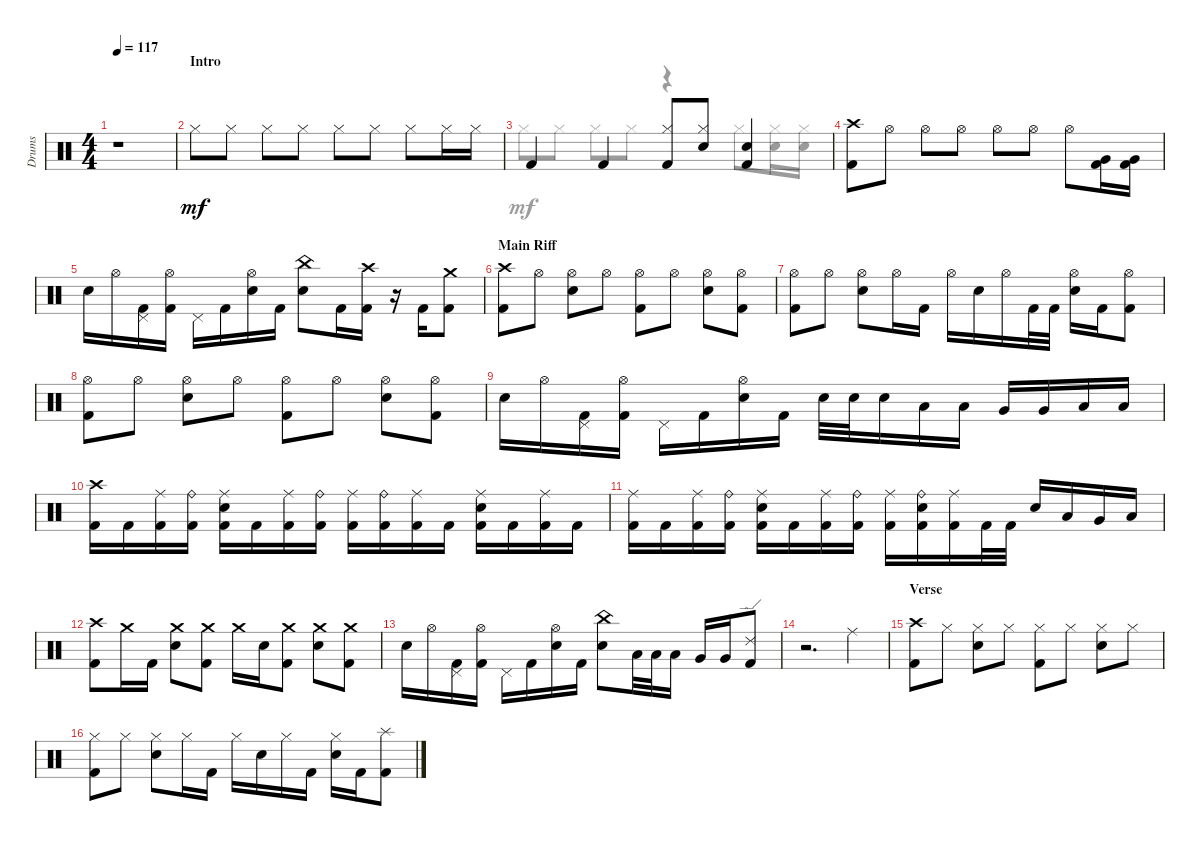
\track ("Drums" "Drums") {instrument percussion}
\staff {score}
\articulation defaults
\voice
\ts (4 4)
\tempo 117
\clef neutral
\ks aminor
r.1{dy mf} |
\section ("" "Intro")
"Hi-Hat (closed)".8 "Hi-Hat (closed)".8 "Hi-Hat (closed)".8 "Hi-Hat (closed)".8 "Hi-Hat (closed)".8 "Hi-Hat (closed)".8 "Hi-Hat (closed)".8 "Hi-Hat (closed)".16 "Hi-Hat (closed)".16 |
"Kick (hit) 2".4 "Kick (hit) 2".4 ("Hi-Hat (closed)" "Kick (hit) 2").8 ("Snare (hit) 2" "Hi-Hat (closed)").8 ("Kick (hit) 2" "Snare (hit) 2").4 |
("Kick (hit) 2" "Crash high (hit)").8 "Hi-Hat (open)".8 "Hi-Hat (open)".8 "Hi-Hat (open)".8 "Hi-Hat (open)".8 "Hi-Hat (open)".8 "Hi-Hat (open)".8 ("Kick (hit) 2" "Very Low Tom (hit)").16 ("Kick (hit) 2" "Very Low Tom (hit)").16 |
"Snare (hit) 2".16 "Hi-Hat (open)".16 ("Pedal Hi-Hat (hit)" "Kick (hit) 2").16 ("Kick (hit) 2" "Hi-Hat (open)").16 "Pedal Hi-Hat (hit)".16 "Kick (hit) 2".16 ("Snare (hit) 2" "Hi-Hat (open)").16 "Kick (hit) 2".16 ("China (hit)" "Snare (hit) 2").8 "Kick (hit) 2".16 ("Crash high (hit)" "Kick (hit) 2").16 r.16 "Kick (hit) 2".16 ("Crash medium (hit)" "Kick (hit) 2").8 |
\section ("" "Main Riff")
("Kick (hit) 2" "Crash high (hit)").8 "Hi-Hat (open)".8 ("Hi-Hat (open)" "Snare (hit) 2").8 "Hi-Hat (open)".8 ("Hi-Hat (open)" "Kick (hit) 2").8 "Hi-Hat (open)".8 ("Hi-Hat (open)" "Snare (hit) 2").8 ("Hi-Hat (open)" "Kick (hit) 2").8 |
("Hi-Hat (open)" "Kick (hit) 2").8 "Hi-Hat (open)".8 ("Snare (hit) 2" "Hi-Hat (open)").8 "Hi-Hat (open)".16 "Kick (hit) 2".16 "Hi-Hat (open)".16 "Snare (hit) 2".16 "Hi-Hat (open)".16 "Kick (hit) 2".32 "Kick (hit) 2".32 ("Hi-Hat (open)" "Snare (hit) 2").16 "Kick (hit) 2".16 ("Kick (hit) 2" "Hi-Hat (open)").8 |
("Kick (hit) 2" "Hi-Hat (open)").8 "Hi-Hat (open)".8 ("Snare (hit) 2" "Hi-Hat (open)").8 "Hi-Hat (open)".8 ("Kick (hit) 2" "Hi-Hat (open)").8 "Hi-Hat (open)".8 ("Snare (hit) 2" "Hi-Hat (open)").8 ("Hi-Hat (open)" "Kick (hit) 2").8 |
"Snare (hit) 2".16 "Hi-Hat (open)".16 ("Pedal Hi-Hat (hit)" "Kick (hit) 2").16 ("Hi-Hat (open)" "Kick (hit) 2").16 "Pedal Hi-Hat (hit)".16 "Kick (hit) 2".16 ("Hi-Hat (open)" "Snare (hit) 2").16 "Kick (hit) 2".16 "Snare (hit) 2".32 "Snare (hit) 2".32 "Snare (hit) 2".16 "Low Tom (hit)".16 "Low Tom (hit)".16 "Very Low Tom (hit)".16 "Very Low Tom (hit)".16 "Low Floor Tom (hit)".16 "Low Floor Tom (hit)".16 |
("Crash high (hit)" "Kick (hit) 2").16 "Kick (hit) 2".16 ("Ride (middle)" "Kick (hit) 2").16 ("Ride (bell)" "Kick (hit) 2").16 ("Snare (hit) 2" "Kick (hit) 2" "Ride (middle)").16 "Kick (hit) 2".16 ("Kick (hit) 2" "Ride (middle)").16 ("Ride (bell)" "Kick (hit) 2").16 ("Kick (hit) 2" "Ride (middle)").16 ("Kick (hit) 2" "Ride (bell)").16 ("Kick (hit) 2" "Ride (middle)").16 "Kick (hit) 2".16 ("Snare (hit) 2" "Ride (middle)" "Kick (hit) 2").16 "Kick (hit) 2".16 ("Ride (middle)" "Kick (hit) 2").16 "Kick (hit) 2".16 |
("Kick (hit) 2" "Ride (middle)").16 "Kick (hit) 2".16 ("Ride (middle)" "Kick (hit) 2").16 ("Ride (bell)" "Kick (hit) 2").16 ("Snare (hit) 2" "Kick (hit) 2" "Ride (middle)").16 "Kick (hit) 2".16 ("Kick (hit) 2" "Ride (middle)").16 ("Ride (bell)" "Kick (hit) 2").16 ("Ride (middle)" "Kick (hit) 2").16 ("Ride (bell)" "Kick (hit) 2" "Snare (hit) 2").16 ("Ride (middle)" "Kick (hit) 2").16 "Kick (hit) 2".32 "Kick (hit) 2".32 "Snare (hit) 2".16 "Low Tom (hit)".16 "Very Low Tom (hit)".16 "Low Floor Tom (hit)".16 |
("Crash high (hit)" "Kick (hit) 2").8 "Crash medium (hit)".16 "Kick (hit) 2".16 ("Crash medium (hit)" "Snare (hit) 2").8 ("Kick (hit) 2" "Crash medium (hit)").8 "Crash medium (hit)".16 "Snare (hit) 2".16 ("Kick (hit) 2" "Crash medium (hit)").8 ("Crash medium (hit)" "Snare (hit) 2").8 ("Kick (hit) 2" "Crash medium (hit)").8 |
"Snare (hit) 2".16 "Hi-Hat (open)".16 ("Kick (hit) 2" "Pedal Hi-Hat (hit)").16 ("Kick (hit) 2" "Hi-Hat (open)").16 "Pedal Hi-Hat (hit)".16 "Kick (hit) 2".16 ("Snare (hit) 2" "Hi-Hat (open)").16 "Kick (hit) 2".16 ("China (hit)" "Snare (hit) 2").8 "Low Tom (hit)".32 "Low Tom (hit)".32 "Low Tom (hit)".16 "Very Low Tom (hit)".16 "Very Low Tom (hit)".16 ("Ride (edge) 2" "Kick (hit) 2").8 |
r.2{d} "Ride (middle)".4 |
\section ("" "Verse")
("Crash high (hit)" "Kick (hit) 2").8 "Hi-Hat (closed)".8 ("Snare (hit) 2" "Hi-Hat (closed)").8 "Hi-Hat (closed)".8 ("Kick (hit) 2" "Hi-Hat (closed)").8 "Hi-Hat (closed)".8 ("Snare (hit) 2" "Hi-Hat (closed)").8 "Hi-Hat (closed)".8 |
("Kick (hit) 2" "Hi-Hat (closed)").8 "Hi-Hat (closed)".8 ("Snare (hit) 2" "Hi-Hat (closed)").8 "Hi-Hat (closed)".16 "Kick (hit) 2".16 "Hi-Hat (closed)".16 "Snare (hit) 2".16 "Hi-Hat (closed)".16 "Kick (hit) 2".16 ("Snare (hit) 2" "Hi-Hat (closed)").16 "Kick (hit) 2".16 ("Splash (hit)" "Kick (hit) 2").8
\voice
\clef neutral
\ottava regular
\simile none
\ks aminor
|
|
"Hi-Hat (closed)".8 "Hi-Hat (closed)".8 "Hi-Hat (closed)".8 "Hi-Hat (closed)".8 r.4 "Hi-Hat (closed)".8 ("Snare (hit) 2" "Hi-Hat (closed)").16 ("Snare (hit) 2" "Hi-Hat (closed)").16 |
|
|
|
|
|
|
|
|
|
|
|
|
